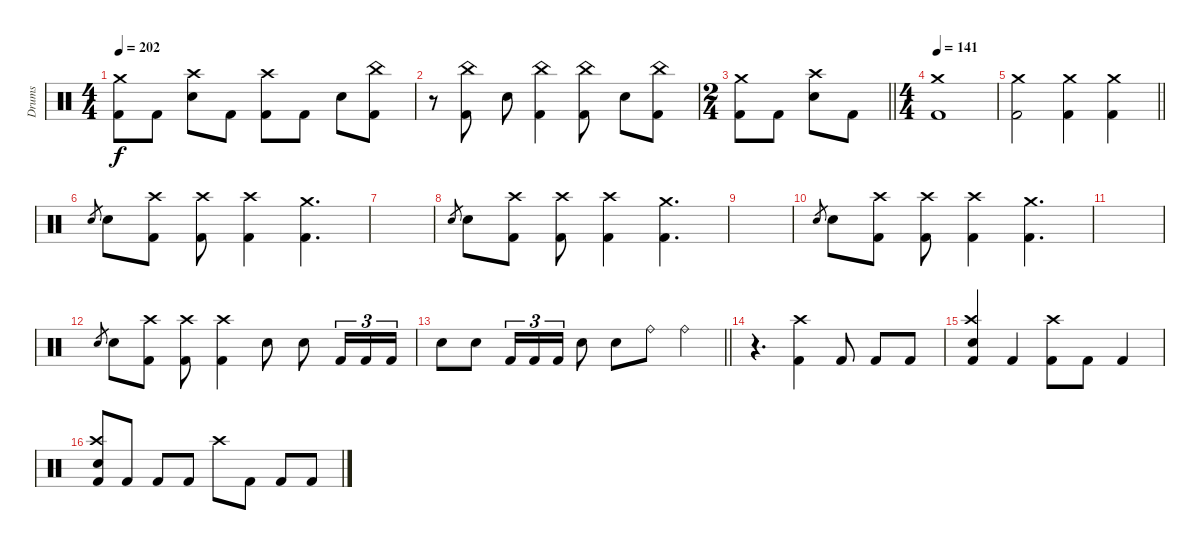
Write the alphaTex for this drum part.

\track ("Drums" "Drums") {instrument percussion}
\staff {score}
\articulation defaults
\ts (4 4)
\tempo 202
\clef neutral
\ks c
("Crash medium (hit)" "Kick (hit) 2").8{dy f} "Kick (hit) 2".8 ("Crash high (hit)" "Electric Snare (hit)").8 "Kick (hit) 2".8 ("Crash high (hit)" "Kick (hit) 2").8 "Kick (hit) 2".8 "Electric Snare (hit)".8 ("China (hit)" "Kick (hit) 2").8 |
r.8 ("China (hit)" "Kick (hit) 2").8 "Electric Snare (hit)".8 ("China (hit)" "Kick (hit) 2").4 ("China (hit)" "Kick (hit) 2").8 "Electric Snare (hit)".8 ("China (hit)" "Kick (hit) 2").8 |
\ts (2 4)
\barLineRight lightlight
("Crash medium (hit)" "Kick (hit) 2").8 "Kick (hit) 2".8 ("Crash high (hit)" "Electric Snare (hit)").8 "Kick (hit) 2".8 |
\ts (4 4)
\section ("" "")
\tempo 141
("Crash medium (hit)" "Kick (hit) 2").1 |
\barLineRight lightlight
("Crash medium (hit)" "Kick (hit) 2").2 ("Crash medium (hit)" "Kick (hit) 2").4 ("Crash medium (hit)" "Kick (hit) 2").4 |
\section ("" "")
"Electric Snare (hit)".8{gr} "Electric Snare (hit)".8 ("Crash high (hit)" "Kick (hit) 2").8 ("Crash high (hit)" "Kick (hit) 2").8 ("Crash high (hit)" "Kick (hit) 2").4 ("Crash medium (hit)" "Kick (hit) 2").4{d} |
|
"Electric Snare (hit)".8{gr} "Electric Snare (hit)".8 ("Crash high (hit)" "Kick (hit) 2").8 ("Crash high (hit)" "Kick (hit) 2").8 ("Crash high (hit)" "Kick (hit) 2").4 ("Crash medium (hit)" "Kick (hit) 2").4{d} |
|
"Electric Snare (hit)".8{gr} "Electric Snare (hit)".8 ("Crash high (hit)" "Kick (hit) 2").8 ("Crash high (hit)" "Kick (hit) 2").8 ("Crash high (hit)" "Kick (hit) 2").4 ("Crash medium (hit)" "Kick (hit) 2").4{d} |
|
"Electric Snare (hit)".8{gr} "Electric Snare (hit)".8 ("Crash high (hit)" "Kick (hit) 2").8 ("Crash high (hit)" "Kick (hit) 2").8 ("Crash high (hit)" "Kick (hit) 2").4 "Electric Snare (hit)".8 "Electric Snare (hit)".8 "Kick (hit) 2".16{tu (3 2)} "Kick (hit) 2".16{tu (3 2)} "Kick (hit) 2".16{tu (3 2)} |
\barLineRight lightlight "Electric Snare (hit)".8 "Electric Snare (hit)".8 "Kick (hit) 2".16{tu (3 2)} "Kick (hit) 2".16{tu (3 2)} "Kick (hit) 2".16{tu (3 2)} "Electric Snare (hit)".8 "Electric Snare (hit)".8 "Ride (bell)".8 "Ride (bell)".4
|
\section ("" "")
r.4{d} ("Crash high (hit)" "Kick (hit) 2").4 "Kick (hit) 2".8 "Kick (hit) 2".8 "Kick (hit) 2".8 |
("Crash high (hit)" "Electric Snare (hit)" "Kick (hit) 2").4 "Kick (hit) 2".4 ("Crash high (hit)" "Kick (hit) 2").8 "Kick (hit) 2".8 "Kick (hit) 2".4 |
("Crash high (hit)" "Electric Snare (hit)" "Kick (hit) 2").8 "Kick (hit) 2".8 "Kick (hit) 2".8 "Kick (hit) 2".8 "Crash high (hit)".8 "Kick (hit) 2".8 "Kick (hit) 2".8 "Kick (hit) 2".8
